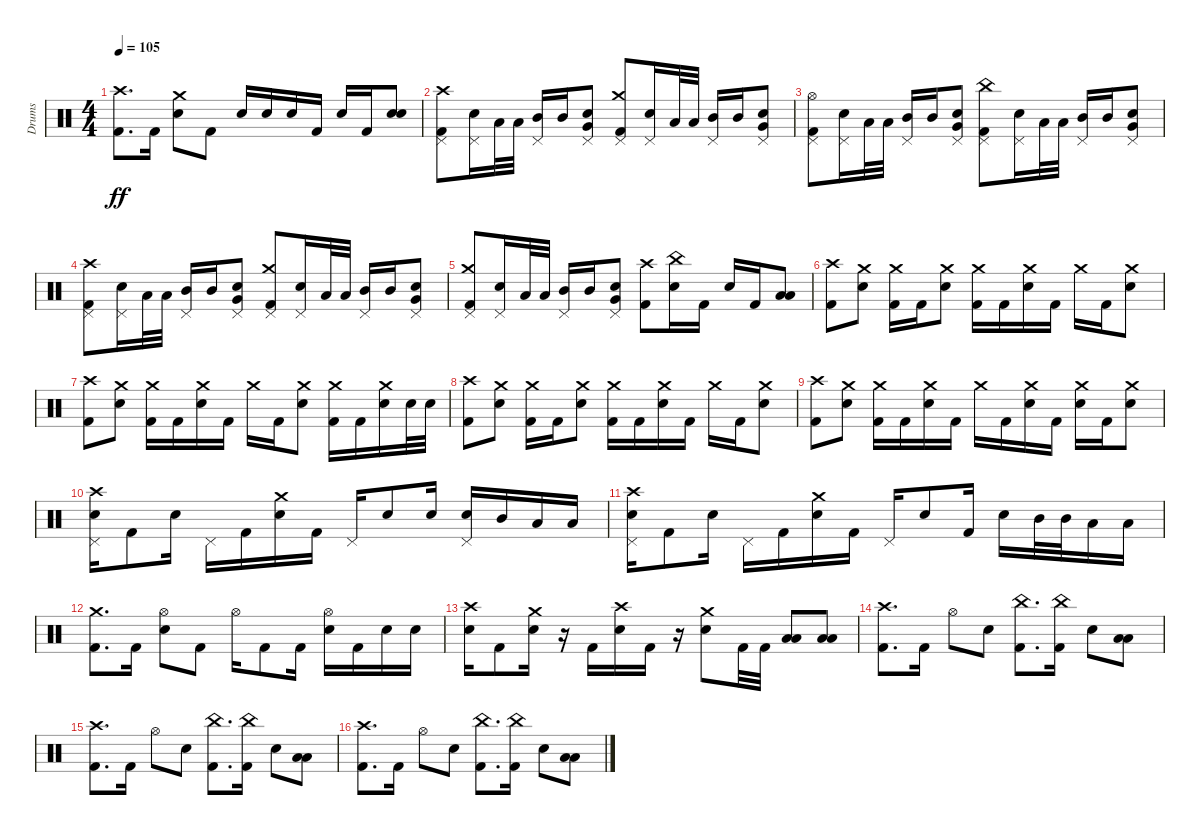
\track ("Drums" "Drums") {instrument percussion}
\staff {score}
\articulation defaults
\ts (4 4)
\tempo 105
\clef neutral
\ks c
("Crash high (hit)" "Kick (hit) 2").8{d dy ff} "Kick (hit) 2".16 ("Crash medium (hit)" "Electric Snare (hit)").8 "Kick (hit) 2".8 "Electric Snare (hit)".16 "Electric Snare (hit)".16 "Electric Snare (hit)".16 "Kick (hit) 2".16 "Electric Snare (hit)".16 "Kick (hit) 2".16 ("Electric Snare (hit)" "Electric Snare (hit)").8{bd 240} |
("Pedal Hi-Hat (hit)" "Crash high (hit)" "Kick (hit) 2").8 ("Pedal Hi-Hat (hit)" "Electric Snare (hit)").16 "Low Tom (hit)".32 "Low Tom (hit)".32 ("Pedal Hi-Hat (hit)" "Mid Tom (hit)").16 "Mid Tom (hit)".16 ("Pedal Hi-Hat (hit)" "Very Low Tom (hit)" "Electric Snare (hit)").8 ("Pedal Hi-Hat (hit)" "Crash medium (hit)" "Kick (hit) 2").8 ("Pedal Hi-Hat (hit)" "Electric Snare (hit)").16 "Low Tom (hit)".32 "Low Tom (hit)".32 ("Pedal Hi-Hat (hit)" "Mid Tom (hit)").16 "Mid Tom (hit)".16 ("Pedal Hi-Hat (hit)" "Very Low Tom (hit)" "Electric Snare (hit)").8 |
("Pedal Hi-Hat (hit)" "Hi-Hat (open)" "Kick (hit) 2").8 ("Pedal Hi-Hat (hit)" "Electric Snare (hit)").16 "Low Tom (hit)".32 "Low Tom (hit)".32 ("Pedal Hi-Hat (hit)" "Mid Tom (hit)").16 "Mid Tom (hit)".16 ("Pedal Hi-Hat (hit)" "Very Low Tom (hit)" "Electric Snare (hit)").8 ("Pedal Hi-Hat (hit)" "China (hit)" "Kick (hit) 2").8 ("Pedal Hi-Hat (hit)" "Electric Snare (hit)").16 "Low Tom (hit)".32 "Low Tom (hit)".32 ("Pedal Hi-Hat (hit)" "Mid Tom (hit)").16 "Mid Tom (hit)".16 ("Pedal Hi-Hat (hit)" "Very Low Tom (hit)" "Electric Snare (hit)").8 |
("Pedal Hi-Hat (hit)" "Crash high (hit)" "Kick (hit) 2").8 ("Pedal Hi-Hat (hit)" "Electric Snare (hit)").16 "Low Tom (hit)".32 "Low Tom (hit)".32 ("Pedal Hi-Hat (hit)" "Mid Tom (hit)").16 "Mid Tom (hit)".16 ("Pedal Hi-Hat (hit)" "Very Low Tom (hit)" "Electric Snare (hit)").8 ("Pedal Hi-Hat (hit)" "Crash medium (hit)" "Kick (hit) 2").8 ("Pedal Hi-Hat (hit)" "Electric Snare (hit)").16 "Low Tom (hit)".32 "Low Tom (hit)".32 ("Pedal Hi-Hat (hit)" "Mid Tom (hit)").16 "Mid Tom (hit)".16 ("Pedal Hi-Hat (hit)" "Very Low Tom (hit)" "Electric Snare (hit)").8 |
("Pedal Hi-Hat (hit)" "Crash medium (hit)" "Kick (hit) 2").8 ("Pedal Hi-Hat (hit)" "Electric Snare (hit)").16 "Low Tom (hit)".32 "Low Tom (hit)".32 ("Pedal Hi-Hat (hit)" "Mid Tom (hit)").16 "Mid Tom (hit)".16 ("Pedal Hi-Hat (hit)" "Very Low Tom (hit)" "Electric Snare (hit)").8 ("Crash high (hit)" "Kick (hit) 2").8 ("China (hit)" "Electric Snare (hit)").16 "Kick (hit) 2".16 "Electric Snare (hit)".16 "Kick (hit) 2".16 ("Low Tom (hit)" "Low Floor Tom (hit)").8{bd 240} |
("Crash high (hit)" "Kick (hit) 2").8 ("Crash medium (hit)" "Electric Snare (hit)").8 ("Crash medium (hit)" "Kick (hit) 2").16 "Kick (hit) 2".16 ("Crash medium (hit)" "Electric Snare (hit)").8 ("Crash medium (hit)" "Kick (hit) 2").16 "Kick (hit) 2".16 ("Crash medium (hit)" "Electric Snare (hit)").16 "Kick (hit) 2".16 "Crash medium (hit)".16 "Kick (hit) 2".16 ("Crash medium (hit)" "Electric Snare (hit)").8 |
("Crash high (hit)" "Kick (hit) 2").8 ("Crash medium (hit)" "Electric Snare (hit)").8 ("Crash medium (hit)" "Kick (hit) 2").16 "Kick (hit) 2".16 ("Crash medium (hit)" "Electric Snare (hit)").16 "Kick (hit) 2".16 "Crash medium (hit)".16 "Kick (hit) 2".16 ("Crash medium (hit)" "Electric Snare (hit)").8 ("Crash medium (hit)" "Kick (hit) 2").16 "Kick (hit) 2".16 ("Crash medium (hit)" "Electric Snare (hit)").16 "Electric Snare (hit)".32 "Electric Snare (hit)".32 |
("Crash high (hit)" "Kick (hit) 2").8 ("Crash medium (hit)" "Electric Snare (hit)").8 ("Crash medium (hit)" "Kick (hit) 2").16 "Kick (hit) 2".16 ("Crash medium (hit)" "Electric Snare (hit)").8 ("Crash medium (hit)" "Kick (hit) 2").16 "Kick (hit) 2".16 ("Crash medium (hit)" "Electric Snare (hit)").16 "Kick (hit) 2".16 "Crash medium (hit)".16 "Kick (hit) 2".16 ("Crash medium (hit)" "Electric Snare (hit)").8 |
("Crash high (hit)" "Kick (hit) 2").8 ("Crash medium (hit)" "Electric Snare (hit)").8 ("Crash medium (hit)" "Kick (hit) 2").16 "Kick (hit) 2".16 ("Crash medium (hit)" "Electric Snare (hit)").16 "Kick (hit) 2".16 "Crash medium (hit)".16 "Kick (hit) 2".16 ("Crash medium (hit)" "Electric Snare (hit)").16 "Kick (hit) 2".16 ("Crash medium (hit)" "Electric Snare (hit)").16 "Kick (hit) 2".16 ("Crash medium (hit)" "Electric Snare (hit)").8 |
("Crash high (hit)" "Pedal Hi-Hat (hit)" "Electric Snare (hit)").16 "Kick (hit) 2".8 "Electric Snare (hit)".16 "Pedal Hi-Hat (hit)".16 "Kick (hit) 2".16 ("Crash medium (hit)" "Electric Snare (hit)").16 "Kick (hit) 2".16 "Pedal Hi-Hat (hit)".16 "Electric Snare (hit)".8 "Electric Snare (hit)".16 ("Pedal Hi-Hat (hit)" "Electric Snare (hit)").16 "Mid Tom (hit)".16 "Low Tom (hit)".16 "Low Tom (hit)".16 |
("Crash high (hit)" "Pedal Hi-Hat (hit)" "Electric Snare (hit)").16 "Kick (hit) 2".8 "Electric Snare (hit)".16 "Pedal Hi-Hat (hit)".16 "Kick (hit) 2".16 ("Crash medium (hit)" "Electric Snare (hit)").16 "Kick (hit) 2".16 "Pedal Hi-Hat (hit)".16 "Electric Snare (hit)".8 "Kick (hit) 2".16 "Electric Snare (hit)".16 "Mid Tom (hit)".32 "Mid Tom (hit)".32 "Low Tom (hit)".16 "Low Tom (hit)".16 |
("Crash medium (hit)" "Kick (hit) 2").8{d} "Kick (hit) 2".16 ("Hi-Hat (open)" "Electric Snare (hit)").8 "Kick (hit) 2".8 "Hi-Hat (open)".16 "Kick (hit) 2".8 "Kick (hit) 2".16 ("Hi-Hat (open)" "Electric Snare (hit)").16 "Kick (hit) 2".16 "Electric Snare (hit)".16 "Electric Snare (hit)".16 |
("Crash high (hit)" "Electric Snare (hit)").16 "Kick (hit) 2".8 ("Crash medium (hit)" "Electric Snare (hit)").16 r.16 "Kick (hit) 2".16 ("Crash high (hit)" "Electric Snare (hit)").16 "Kick (hit) 2".16 r.16 ("Crash medium (hit)" "Electric Snare (hit)").8 "Kick (hit) 2".32 "Kick (hit) 2".32 ("Low Floor Tom (hit)" "Low Floor Tom (hit)").8{bd 240} ("Low Floor Tom (hit)" "Low Floor Tom (hit)").8{bd 240} |
("Crash high (hit)" "Kick (hit) 2").8{d} "Kick (hit) 2".16 "Hi-Hat (open)".8 "Electric Snare (hit)".8 ("China (hit)" "Kick (hit) 2").8{d} ("China (hit)" "Kick (hit) 2").16 "Electric Snare (hit)".8 ("Low Tom (hit)" "Low Floor Tom (hit)").8{bd 480} |
("Crash high (hit)" "Kick (hit) 2").8{d} "Kick (hit) 2".16 "Hi-Hat (open)".8 "Electric Snare (hit)".8 ("China (hit)" "Kick (hit) 2").8{d} ("China (hit)" "Kick (hit) 2").16 "Electric Snare (hit)".8 ("Low Tom (hit)" "Low Floor Tom (hit)").8{bd 480} |
("Crash high (hit)" "Kick (hit) 2").8{d} "Kick (hit) 2".16 "Hi-Hat (open)".8 "Electric Snare (hit)".8 ("China (hit)" "Kick (hit) 2").8{d} ("China (hit)" "Kick (hit) 2").16 "Electric Snare (hit)".8 ("Low Tom (hit)" "Low Floor Tom (hit)").8{bd 480}
